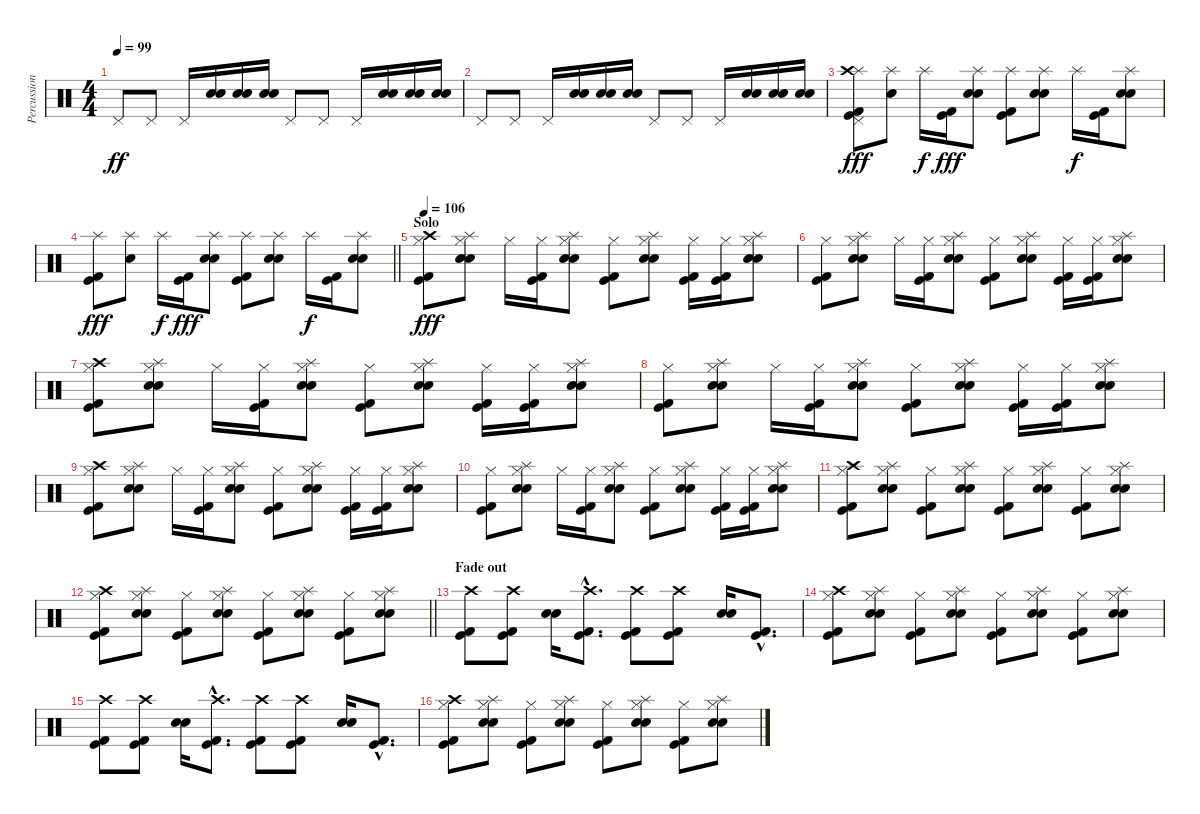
\track ("Percussion" "Percussion") {instrument percussion}
\staff {score}
\articulation defaults
\ts (4 4)
\tempo 99
\clef neutral
\ks c "Pedal Hi-Hat (hit)".8{dy ff} "Pedal Hi-Hat (hit)".8 "Pedal Hi-Hat (hit)".16
("Electric Snare (hit)" "Snare (hit) 2").16 ("Electric Snare (hit)" "Snare (hit) 2").16 ("Electric Snare (hit)" "Snare (hit) 2").16 "Pedal Hi-Hat (hit)".8 "Pedal Hi-Hat (hit)".8 "Pedal Hi-Hat (hit)".16 ("Electric Snare (hit)" "Snare (hit) 2").16 ("Electric Snare (hit)" "Snare (hit) 2").16 ("Electric Snare (hit)" "Snare (hit) 2").16 |
"Pedal Hi-Hat (hit)".8 "Pedal Hi-Hat (hit)".8 "Pedal Hi-Hat (hit)".16 ("Electric Snare (hit)" "Snare (hit) 2").16 ("Electric Snare (hit)" "Snare (hit) 2").16 ("Electric Snare (hit)" "Snare (hit) 2").16 "Pedal Hi-Hat (hit)".8 "Pedal Hi-Hat (hit)".8 "Pedal Hi-Hat (hit)".16 ("Electric Snare (hit)" "Snare (hit) 2").16 ("Electric Snare (hit)" "Snare (hit) 2").16 ("Electric Snare (hit)" "Snare (hit) 2").16 |
("Splash (hit)" "Crash high (hit)" "Pedal Hi-Hat (hit)" "Kick (hit)" "Kick (hit) 2").8{dy fff} ("Splash (hit)" "Snare (hit) 2").8 "Splash (hit)".16{dy f} ("Kick (hit)" "Kick (hit) 2").16{dy fff} ("Splash (hit)" "Electric Snare (hit)" "Snare (hit) 2").8 ("Splash (hit)" "Kick (hit)" "Kick (hit) 2").8 ("Splash (hit)" "Electric Snare (hit)" "Snare (hit) 2").8 "Splash (hit)".16{dy f} ("Kick (hit)" "Kick (hit) 2").16 ("Splash (hit)" "Electric Snare (hit)" "Snare (hit) 2").8 |
\barLineRight lightlight
("Splash (hit)" "Kick (hit)" "Kick (hit) 2").8{dy fff} ("Splash (hit)" "Snare (hit) 2").8 "Splash (hit)".16{dy f} ("Kick (hit)" "Kick (hit) 2").16{dy fff} ("Splash (hit)" "Electric Snare (hit)" "Snare (hit) 2").8 ("Splash (hit)" "Kick (hit)" "Kick (hit) 2").8 ("Splash (hit)" "Electric Snare (hit)" "Snare (hit) 2").8 "Splash (hit)".16{dy f} ("Kick (hit)" "Kick (hit) 2").16 ("Splash (hit)" "Electric Snare (hit)" "Snare (hit) 2").8 |
\section ("" "Solo")
\tempo 106
("Crash high (hit)" "Hi-Hat (closed)" "Kick (hit)" "Kick (hit) 2").8{dy fff} ("Splash (hit)" "Electric Snare (hit)" "Snare (hit) 2" "Hi-Hat (closed)").8 "Hi-Hat (closed)".16 ("Hi-Hat (closed)" "Kick (hit)" "Kick (hit) 2").16 ("Splash (hit)" "Electric Snare (hit)" "Snare (hit) 2" "Hi-Hat (closed)").8 ("Hi-Hat (closed)" "Kick (hit)" "Kick (hit) 2").8 ("Splash (hit)" "Electric Snare (hit)" "Snare (hit) 2" "Hi-Hat (closed)").8 ("Hi-Hat (closed)" "Kick (hit)" "Kick (hit) 2").16 ("Hi-Hat (closed)" "Kick (hit)" "Kick (hit) 2").16 ("Splash (hit)" "Electric Snare (hit)" "Snare (hit) 2" "Hi-Hat (closed)").8 |
("Hi-Hat (closed)" "Kick (hit)" "Kick (hit) 2").8 ("Splash (hit)" "Electric Snare (hit)" "Snare (hit) 2" "Hi-Hat (closed)").8 "Hi-Hat (closed)".16 ("Hi-Hat (closed)" "Kick (hit)" "Kick (hit) 2").16 ("Splash (hit)" "Electric Snare (hit)" "Snare (hit) 2" "Hi-Hat (closed)").8 ("Hi-Hat (closed)" "Kick (hit)" "Kick (hit) 2").8 ("Splash (hit)" "Electric Snare (hit)" "Snare (hit) 2" "Hi-Hat (closed)").8 ("Hi-Hat (closed)" "Kick (hit)" "Kick (hit) 2").16 ("Hi-Hat (closed)" "Kick (hit)" "Kick (hit) 2").16 ("Splash (hit)" "Electric Snare (hit)" "Snare (hit) 2" "Hi-Hat (closed)").8 |
("Crash high (hit)" "Hi-Hat (closed)" "Kick (hit)" "Kick (hit) 2").8 ("Splash (hit)" "Electric Snare (hit)" "Snare (hit) 2" "Hi-Hat (closed)").8 "Hi-Hat (closed)".16 ("Hi-Hat (closed)" "Kick (hit)" "Kick (hit) 2").16 ("Splash (hit)" "Electric Snare (hit)" "Snare (hit) 2" "Hi-Hat (closed)").8 ("Hi-Hat (closed)" "Kick (hit)" "Kick (hit) 2").8 ("Splash (hit)" "Electric Snare (hit)" "Snare (hit) 2" "Hi-Hat (closed)").8 ("Hi-Hat (closed)" "Kick (hit)" "Kick (hit) 2").16 ("Hi-Hat (closed)" "Kick (hit)" "Kick (hit) 2").16 ("Splash (hit)" "Electric Snare (hit)" "Snare (hit) 2" "Hi-Hat (closed)").8 |
("Hi-Hat (closed)" "Kick (hit)" "Kick (hit) 2").8 ("Splash (hit)" "Electric Snare (hit)" "Snare (hit) 2" "Hi-Hat (closed)").8 "Hi-Hat (closed)".16 ("Hi-Hat (closed)" "Kick (hit)" "Kick (hit) 2").16 ("Splash (hit)" "Electric Snare (hit)" "Snare (hit) 2" "Hi-Hat (closed)").8 ("Hi-Hat (closed)" "Kick (hit)" "Kick (hit) 2").8 ("Splash (hit)" "Electric Snare (hit)" "Snare (hit) 2" "Hi-Hat (closed)").8 ("Hi-Hat (closed)" "Kick (hit)" "Kick (hit) 2").16 ("Hi-Hat (closed)" "Kick (hit)" "Kick (hit) 2").16 ("Splash (hit)" "Electric Snare (hit)" "Snare (hit) 2" "Hi-Hat (closed)").8 |
("Crash high (hit)" "Hi-Hat (closed)" "Kick (hit)" "Kick (hit) 2").8 ("Splash (hit)" "Electric Snare (hit)" "Snare (hit) 2" "Hi-Hat (closed)").8 "Hi-Hat (closed)".16 ("Hi-Hat (closed)" "Kick (hit)" "Kick (hit) 2").16 ("Splash (hit)" "Electric Snare (hit)" "Snare (hit) 2" "Hi-Hat (closed)").8 ("Hi-Hat (closed)" "Kick (hit)" "Kick (hit) 2").8 ("Splash (hit)" "Electric Snare (hit)" "Snare (hit) 2" "Hi-Hat (closed)").8 ("Hi-Hat (closed)" "Kick (hit)" "Kick (hit) 2").16 ("Hi-Hat (closed)" "Kick (hit)" "Kick (hit) 2").16 ("Splash (hit)" "Electric Snare (hit)" "Snare (hit) 2" "Hi-Hat (closed)").8 |
("Hi-Hat (closed)" "Kick (hit)" "Kick (hit) 2").8 ("Splash (hit)" "Electric Snare (hit)" "Snare (hit) 2" "Hi-Hat (closed)").8 "Hi-Hat (closed)".16 ("Hi-Hat (closed)" "Kick (hit)" "Kick (hit) 2").16 ("Splash (hit)" "Electric Snare (hit)" "Snare (hit) 2" "Hi-Hat (closed)").8 ("Hi-Hat (closed)" "Kick (hit)" "Kick (hit) 2").8 ("Splash (hit)" "Electric Snare (hit)" "Snare (hit) 2" "Hi-Hat (closed)").8 ("Hi-Hat (closed)" "Kick (hit)" "Kick (hit) 2").16 ("Hi-Hat (closed)" "Kick (hit)" "Kick (hit) 2").16 ("Splash (hit)" "Electric Snare (hit)" "Snare (hit) 2" "Hi-Hat (closed)").8 |
("Crash high (hit)" "Hi-Hat (closed)" "Kick (hit)" "Kick (hit) 2").8 ("Splash (hit)" "Electric Snare (hit)" "Snare (hit) 2" "Hi-Hat (closed)").8 ("Hi-Hat (closed)" "Kick (hit)" "Kick (hit) 2").8 ("Splash (hit)" "Electric Snare (hit)" "Snare (hit) 2" "Hi-Hat (closed)").8 ("Hi-Hat (closed)" "Kick (hit)" "Kick (hit) 2").8 ("Splash (hit)" "Electric Snare (hit)" "Snare (hit) 2" "Hi-Hat (closed)").8 ("Hi-Hat (closed)" "Kick (hit)" "Kick (hit) 2").8 ("Splash (hit)" "Electric Snare (hit)" "Snare (hit) 2" "Hi-Hat (closed)").8 |
\barLineRight lightlight
("Crash high (hit)" "Hi-Hat (closed)" "Kick (hit)" "Kick (hit) 2").8 ("Splash (hit)" "Electric Snare (hit)" "Snare (hit) 2" "Hi-Hat (closed)").8 ("Hi-Hat (closed)" "Kick (hit)" "Kick (hit) 2").8 ("Splash (hit)" "Electric Snare (hit)" "Snare (hit) 2" "Hi-Hat (closed)").8 ("Hi-Hat (closed)" "Kick (hit)" "Kick (hit) 2").8 ("Splash (hit)" "Electric Snare (hit)" "Snare (hit) 2" "Hi-Hat (closed)").8 ("Hi-Hat (closed)" "Kick (hit)" "Kick (hit) 2").8 ("Splash (hit)" "Electric Snare (hit)" "Snare (hit) 2" "Hi-Hat (closed)").8 |
\section ("" "Fade out")
("Crash high (hit)" "Kick (hit)" "Kick (hit) 2").8 ("Crash high (hit)" "Kick (hit)" "Kick (hit) 2").8 ("Snare (hit) 2" "Electric Snare (hit)").16 ("Crash high (hit)"{hac} "Kick (hit)"{hac} "Kick (hit) 2"{hac}).8{d} ("Crash high (hit)" "Kick (hit)" "Kick (hit) 2").8 ("Crash high (hit)" "Kick (hit)" "Kick (hit) 2").8 ("Snare (hit) 2" "Electric Snare (hit)").16 ("Kick (hit)"{hac} "Kick (hit) 2"{hac}).8{d} |
("Crash high (hit)" "Hi-Hat (closed)" "Kick (hit)" "Kick (hit) 2").8 ("Splash (hit)" "Electric Snare (hit)" "Snare (hit) 2" "Hi-Hat (closed)").8 ("Hi-Hat (closed)" "Kick (hit)" "Kick (hit) 2").8 ("Splash (hit)" "Electric Snare (hit)" "Snare (hit) 2" "Hi-Hat (closed)").8 ("Hi-Hat (closed)" "Kick (hit)" "Kick (hit) 2").8 ("Splash (hit)" "Electric Snare (hit)" "Snare (hit) 2" "Hi-Hat (closed)").8 ("Hi-Hat (closed)" "Kick (hit)" "Kick (hit) 2").8 ("Splash (hit)" "Electric Snare (hit)" "Snare (hit) 2" "Hi-Hat (closed)").8 |
("Crash high (hit)" "Kick (hit)" "Kick (hit) 2").8 ("Crash high (hit)" "Kick (hit)" "Kick (hit) 2").8 ("Snare (hit) 2" "Electric Snare (hit)").16 ("Crash high (hit)"{hac} "Kick (hit)"{hac} "Kick (hit) 2"{hac}).8{d} ("Crash high (hit)" "Kick (hit)" "Kick (hit) 2").8 ("Crash high (hit)" "Kick (hit)" "Kick (hit) 2").8 ("Snare (hit) 2" "Electric Snare (hit)").16 ("Kick (hit)"{hac} "Kick (hit) 2"{hac}).8{d} |
("Crash high (hit)" "Hi-Hat (closed)" "Kick (hit)" "Kick (hit) 2").8 ("Splash (hit)" "Electric Snare (hit)" "Snare (hit) 2" "Hi-Hat (closed)").8 ("Hi-Hat (closed)" "Kick (hit)" "Kick (hit) 2").8 ("Splash (hit)" "Electric Snare (hit)" "Snare (hit) 2" "Hi-Hat (closed)").8 ("Hi-Hat (closed)" "Kick (hit)" "Kick (hit) 2").8 ("Splash (hit)" "Electric Snare (hit)" "Snare (hit) 2" "Hi-Hat (closed)").8 ("Hi-Hat (closed)" "Kick (hit)" "Kick (hit) 2").8 ("Splash (hit)" "Electric Snare (hit)" "Snare (hit) 2" "Hi-Hat (closed)").8
